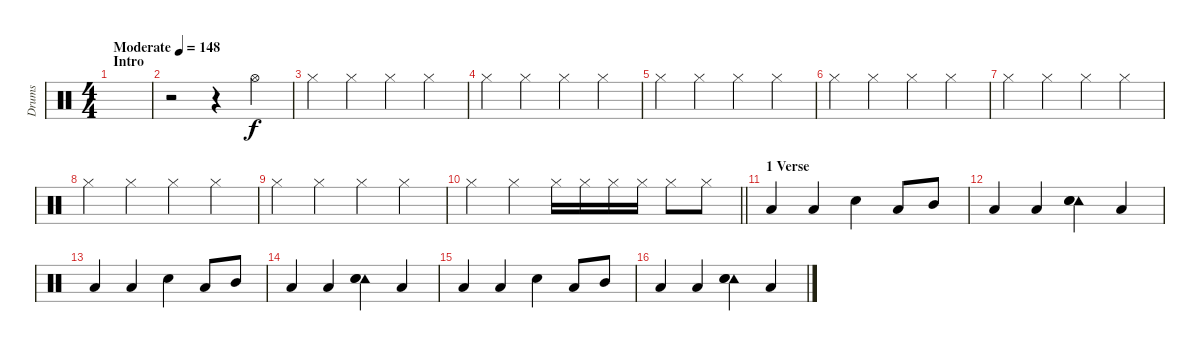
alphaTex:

\track ("Drums" "Drums") {instrument percussion}
\staff {score}
\articulation defaults
\ts (4 4)
\section ("" "Intro")
\tempo (148 "Moderate")
\clef neutral
\ks c
|
r.2 r.4 "Hi-Hat (open)".4 |
"Hi-Hat (closed)".4 "Hi-Hat (closed)".4 "Hi-Hat (closed)".4 "Hi-Hat (closed)".4 |
"Hi-Hat (closed)".4 "Hi-Hat (closed)".4 "Hi-Hat (closed)".4 "Hi-Hat (closed)".4 |
"Hi-Hat (closed)".4 "Hi-Hat (closed)".4 "Hi-Hat (closed)".4 "Hi-Hat (closed)".4 |
"Hi-Hat (closed)".4 "Hi-Hat (closed)".4 "Hi-Hat (closed)".4 "Hi-Hat (closed)".4 |
"Hi-Hat (closed)".4 "Hi-Hat (closed)".4 "Hi-Hat (closed)".4 "Hi-Hat (closed)".4 |
"Hi-Hat (closed)".4 "Hi-Hat (closed)".4 "Hi-Hat (closed)".4 "Hi-Hat (closed)".4 |
"Hi-Hat (closed)".4 "Hi-Hat (closed)".4 "Hi-Hat (closed)".4 "Hi-Hat (closed)".4 |
\barLineRight lightlight "Hi-Hat (closed)".4 "Hi-Hat (closed)".4 "Hi-Hat (closed)".16 "Hi-Hat (closed)".16 "Hi-Hat (closed)".16 "Hi-Hat (closed)".16 "Hi-Hat (closed)".8 "Hi-Hat (closed)".8
|
\section ("" "1 Verse")
"Low Floor Tom (hit)".4 "Low Floor Tom (hit)".4 "Electric Snare (hit)".4 "Low Floor Tom (hit)".8 "Mid Tom (hit)".8 |
"Low Floor Tom (hit)".4 "Low Floor Tom (hit)".4 ("Tambourine (hit)" "Snare (hit) 2" "Electric Snare (hit)").4 "Low Floor Tom (hit)".4 |
"Low Floor Tom (hit)".4 "Low Floor Tom (hit)".4 "Electric Snare (hit)".4 "Low Floor Tom (hit)".8 "Mid Tom (hit)".8 |
"Low Floor Tom (hit)".4 "Low Floor Tom (hit)".4 ("Tambourine (hit)" "Snare (hit) 2" "Electric Snare (hit)").4 "Low Floor Tom (hit)".4 |
"Low Floor Tom (hit)".4 "Low Floor Tom (hit)".4 "Electric Snare (hit)".4 "Low Floor Tom (hit)".8 "Mid Tom (hit)".8 |
"Low Floor Tom (hit)".4 "Low Floor Tom (hit)".4 ("Tambourine (hit)" "Snare (hit) 2" "Electric Snare (hit)").4 "Low Floor Tom (hit)".4
